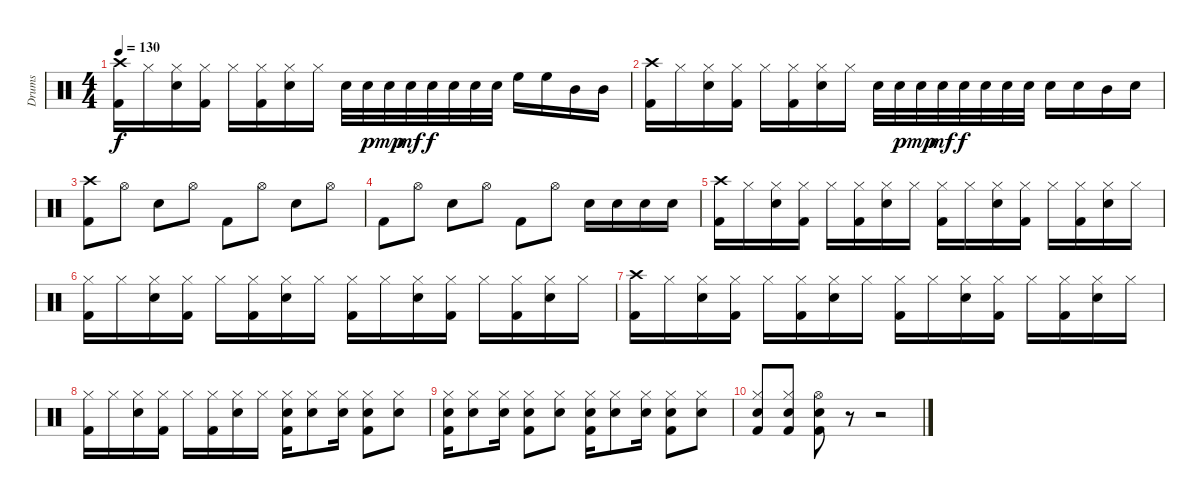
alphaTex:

\track ("Drums" "Drums") {instrument percussion}
\staff {score}
\articulation defaults
\ts (4 4)
\tempo 130
\clef neutral
\ks c
("Crash high (hit)" "Kick (hit) 2").16{dy f} "Hi-Hat (closed)".16 ("Hi-Hat (closed)" "Electric Snare (hit)").16 ("Hi-Hat (closed)" "Kick (hit) 2").16 "Hi-Hat (closed)".16 ("Hi-Hat (closed)" "Kick (hit) 2").16 ("Hi-Hat (closed)" "Electric Snare (hit)").16 "Hi-Hat (closed)".16 "Electric Snare (hit)".32 "Electric Snare (hit)".32{dy p} "Electric Snare (hit)".32{dy mp} "Electric Snare (hit)".32{dy mf} "Electric Snare (hit)".32{dy f} "Electric Snare (hit)".32 "Electric Snare (hit)".32 "Electric Snare (hit)".32 "High Floor Tom (hit)".16 "High Floor Tom (hit)".16 "Mid Tom (hit)".16 "Mid Tom (hit)".16 |
("Crash high (hit)" "Kick (hit) 2").16 "Hi-Hat (closed)".16 ("Hi-Hat (closed)" "Electric Snare (hit)").16 ("Hi-Hat (closed)" "Kick (hit) 2").16 "Hi-Hat (closed)".16 ("Hi-Hat (closed)" "Kick (hit) 2").16 ("Hi-Hat (closed)" "Electric Snare (hit)").16 "Hi-Hat (closed)".16 "Electric Snare (hit)".32 "Electric Snare (hit)".32{dy p} "Electric Snare (hit)".32{dy mp} "Electric Snare (hit)".32{dy mf} "Electric Snare (hit)".32{dy f} "Electric Snare (hit)".32 "Electric Snare (hit)".32 "Electric Snare (hit)".32 "Electric Snare (hit)".16 "Electric Snare (hit)".16 "Mid Tom (hit)".16 "Electric Snare (hit)".16 |
("Crash high (hit)" "Kick (hit) 2").8 "Hi-Hat (open)".8 "Electric Snare (hit)".8 "Hi-Hat (open)".8 "Kick (hit) 2".8 "Hi-Hat (open)".8 "Electric Snare (hit)".8 "Hi-Hat (open)".8 |
"Kick (hit) 2".8 "Hi-Hat (open)".8 "Electric Snare (hit)".8 "Hi-Hat (open)".8 "Kick (hit) 2".8 "Hi-Hat (open)".8 "Electric Snare (hit)".16 "Electric Snare (hit)".16 "Electric Snare (hit)".16 "Electric Snare (hit)".16 |
("Crash high (hit)" "Kick (hit) 2").16 "Hi-Hat (closed)".16 ("Hi-Hat (closed)" "Electric Snare (hit)").16 ("Hi-Hat (closed)" "Kick (hit) 2").16 "Hi-Hat (closed)".16 ("Hi-Hat (closed)" "Kick (hit) 2").16 ("Hi-Hat (closed)" "Electric Snare (hit)").16 "Hi-Hat (closed)".16 ("Hi-Hat (closed)" "Kick (hit) 2").16 "Hi-Hat (closed)".16 ("Hi-Hat (closed)" "Electric Snare (hit)").16 ("Hi-Hat (closed)" "Kick (hit) 2").16 "Hi-Hat (closed)".16 ("Hi-Hat (closed)" "Kick (hit) 2").16 ("Hi-Hat (closed)" "Electric Snare (hit)").16 "Hi-Hat (closed)".16 |
("Hi-Hat (closed)" "Kick (hit) 2").16 "Hi-Hat (closed)".16 ("Hi-Hat (closed)" "Electric Snare (hit)").16 ("Hi-Hat (closed)" "Kick (hit) 2").16 "Hi-Hat (closed)".16 ("Hi-Hat (closed)" "Kick (hit) 2").16 ("Hi-Hat (closed)" "Electric Snare (hit)").16 "Hi-Hat (closed)".16 ("Hi-Hat (closed)" "Kick (hit) 2").16 "Hi-Hat (closed)".16 ("Hi-Hat (closed)" "Electric Snare (hit)").16 ("Hi-Hat (closed)" "Kick (hit) 2").16 "Hi-Hat (closed)".16 ("Hi-Hat (closed)" "Kick (hit) 2").16 ("Hi-Hat (closed)" "Electric Snare (hit)").16 "Hi-Hat (closed)".16 |
("Crash high (hit)" "Kick (hit) 2").16 "Hi-Hat (closed)".16 ("Hi-Hat (closed)" "Electric Snare (hit)").16 ("Hi-Hat (closed)" "Kick (hit) 2").16 "Hi-Hat (closed)".16 ("Hi-Hat (closed)" "Kick (hit) 2").16 ("Hi-Hat (closed)" "Electric Snare (hit)").16 "Hi-Hat (closed)".16 ("Hi-Hat (closed)" "Kick (hit) 2").16 "Hi-Hat (closed)".16 ("Hi-Hat (closed)" "Electric Snare (hit)").16 ("Hi-Hat (closed)" "Kick (hit) 2").16 "Hi-Hat (closed)".16 ("Hi-Hat (closed)" "Kick (hit) 2").16 ("Hi-Hat (closed)" "Electric Snare (hit)").16 "Hi-Hat (closed)".16 |
("Hi-Hat (closed)" "Kick (hit) 2").16 "Hi-Hat (closed)".16 ("Hi-Hat (closed)" "Electric Snare (hit)").16 ("Hi-Hat (closed)" "Kick (hit) 2").16 "Hi-Hat (closed)".16 ("Hi-Hat (closed)" "Kick (hit) 2").16 ("Hi-Hat (closed)" "Electric Snare (hit)").16 "Hi-Hat (closed)".16 ("Hi-Hat (closed)" "Electric Snare (hit)" "Kick (hit) 2").16 ("Hi-Hat (closed)" "Electric Snare (hit)").8 ("Hi-Hat (closed)" "Electric Snare (hit)").16 ("Hi-Hat (closed)" "Electric Snare (hit)" "Kick (hit) 2").8 ("Hi-Hat (closed)" "Electric Snare (hit)").8 |
("Hi-Hat (closed)" "Electric Snare (hit)" "Kick (hit) 2").16 ("Hi-Hat (closed)" "Electric Snare (hit)").8 ("Hi-Hat (closed)" "Electric Snare (hit)").16 ("Hi-Hat (closed)" "Electric Snare (hit)" "Kick (hit) 2").8 ("Hi-Hat (closed)" "Electric Snare (hit)").8 ("Hi-Hat (closed)" "Electric Snare (hit)" "Kick (hit) 2").16 ("Hi-Hat (closed)" "Electric Snare (hit)").8 ("Hi-Hat (closed)" "Electric Snare (hit)").16 ("Hi-Hat (closed)" "Electric Snare (hit)" "Kick (hit) 2").8 ("Hi-Hat (closed)" "Electric Snare (hit)").8 |
("Hi-Hat (closed)" "Electric Snare (hit)" "Kick (hit) 2").8 ("Hi-Hat (closed)" "Electric Snare (hit)" "Kick (hit) 2").8 ("Hi-Hat (open)" "Electric Snare (hit)" "Kick (hit) 2").8 r.8 r.2
